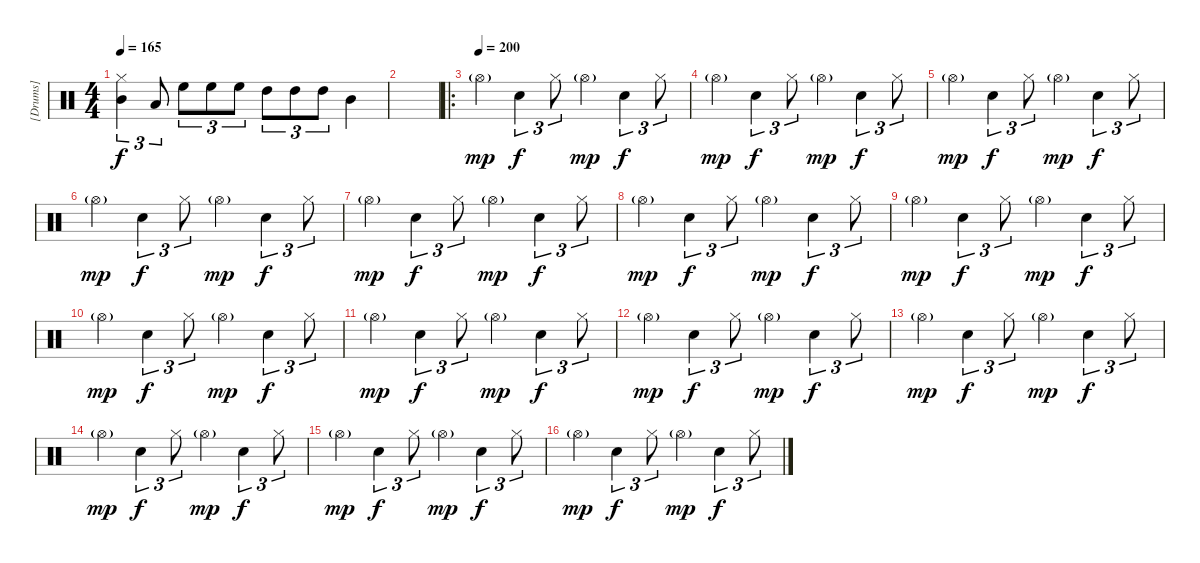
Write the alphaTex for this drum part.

\track ("[Drums]" "[Drums]") {instrument percussion}
\staff {score}
\articulation defaults
\ts (4 4)
\tempo 165
\clef neutral
\ks c
("Hi-Hat (closed)" "Mid Tom (hit)").4{tu (3 2) dy f} "Low Tom (hit)".8{tu (3 2)} "High Floor Tom (hit)".8{tu (3 2)} "High Floor Tom (hit)".8{tu (3 2)} "High Floor Tom (hit)".8{tu (3 2)} "High Tom (hit)".8{tu (3 2)} "High Tom (hit)".8{tu (3 2)} "High Tom (hit)".8{tu (3 2)} "Mid Tom (hit)".4 |
|
\ro
\tempo (200)
"Hi-Hat (open)"{g}.4{dy mp} "Electric Snare (hit)".4{tu (3 2) dy f} "Hi-Hat (closed)".8{tu (3 2)} "Hi-Hat (open)"{g}.4{dy mp} "Electric Snare (hit)".4{tu (3 2) dy f} "Hi-Hat (closed)".8{tu (3 2)} |
"Hi-Hat (open)"{g}.4{dy mp} "Electric Snare (hit)".4{tu (3 2) dy f} "Hi-Hat (closed)".8{tu (3 2)} "Hi-Hat (open)"{g}.4{dy mp} "Electric Snare (hit)".4{tu (3 2) dy f} "Hi-Hat (closed)".8{tu (3 2)} |
"Hi-Hat (open)"{g}.4{dy mp} "Electric Snare (hit)".4{tu (3 2) dy f} "Hi-Hat (closed)".8{tu (3 2)} "Hi-Hat (open)"{g}.4{dy mp} "Electric Snare (hit)".4{tu (3 2) dy f} "Hi-Hat (closed)".8{tu (3 2)} |
"Hi-Hat (open)"{g}.4{dy mp} "Electric Snare (hit)".4{tu (3 2) dy f} "Hi-Hat (closed)".8{tu (3 2)} "Hi-Hat (open)"{g}.4{dy mp} "Electric Snare (hit)".4{tu (3 2) dy f} "Hi-Hat (closed)".8{tu (3 2)} |
"Hi-Hat (open)"{g}.4{dy mp} "Electric Snare (hit)".4{tu (3 2) dy f} "Hi-Hat (closed)".8{tu (3 2)} "Hi-Hat (open)"{g}.4{dy mp} "Electric Snare (hit)".4{tu (3 2) dy f} "Hi-Hat (closed)".8{tu (3 2)} |
"Hi-Hat (open)"{g}.4{dy mp} "Electric Snare (hit)".4{tu (3 2) dy f} "Hi-Hat (closed)".8{tu (3 2)} "Hi-Hat (open)"{g}.4{dy mp} "Electric Snare (hit)".4{tu (3 2) dy f} "Hi-Hat (closed)".8{tu (3 2)} |
"Hi-Hat (open)"{g}.4{dy mp} "Electric Snare (hit)".4{tu (3 2) dy f} "Hi-Hat (closed)".8{tu (3 2)} "Hi-Hat (open)"{g}.4{dy mp} "Electric Snare (hit)".4{tu (3 2) dy f} "Hi-Hat (closed)".8{tu (3 2)} |
"Hi-Hat (open)"{g}.4{dy mp} "Electric Snare (hit)".4{tu (3 2) dy f} "Hi-Hat (closed)".8{tu (3 2)} "Hi-Hat (open)"{g}.4{dy mp} "Electric Snare (hit)".4{tu (3 2) dy f} "Hi-Hat (closed)".8{tu (3 2)} |
"Hi-Hat (open)"{g}.4{dy mp} "Electric Snare (hit)".4{tu (3 2) dy f} "Hi-Hat (closed)".8{tu (3 2)} "Hi-Hat (open)"{g}.4{dy mp} "Electric Snare (hit)".4{tu (3 2) dy f} "Hi-Hat (closed)".8{tu (3 2)} |
"Hi-Hat (open)"{g}.4{dy mp} "Electric Snare (hit)".4{tu (3 2) dy f} "Hi-Hat (closed)".8{tu (3 2)} "Hi-Hat (open)"{g}.4{dy mp} "Electric Snare (hit)".4{tu (3 2) dy f} "Hi-Hat (closed)".8{tu (3 2)} |
"Hi-Hat (open)"{g}.4{dy mp} "Electric Snare (hit)".4{tu (3 2) dy f} "Hi-Hat (closed)".8{tu (3 2)} "Hi-Hat (open)"{g}.4{dy mp} "Electric Snare (hit)".4{tu (3 2) dy f} "Hi-Hat (closed)".8{tu (3 2)} |
"Hi-Hat (open)"{g}.4{dy mp} "Electric Snare (hit)".4{tu (3 2) dy f} "Hi-Hat (closed)".8{tu (3 2)} "Hi-Hat (open)"{g}.4{dy mp} "Electric Snare (hit)".4{tu (3 2) dy f} "Hi-Hat (closed)".8{tu (3 2)} |
"Hi-Hat (open)"{g}.4{dy mp} "Electric Snare (hit)".4{tu (3 2) dy f} "Hi-Hat (closed)".8{tu (3 2)} "Hi-Hat (open)"{g}.4{dy mp} "Electric Snare (hit)".4{tu (3 2) dy f} "Hi-Hat (closed)".8{tu (3 2)} |
"Hi-Hat (open)"{g}.4{dy mp} "Electric Snare (hit)".4{tu (3 2) dy f} "Hi-Hat (closed)".8{tu (3 2)} "Hi-Hat (open)"{g}.4{dy mp} "Electric Snare (hit)".4{tu (3 2) dy f} "Hi-Hat (closed)".8{tu (3 2)}
